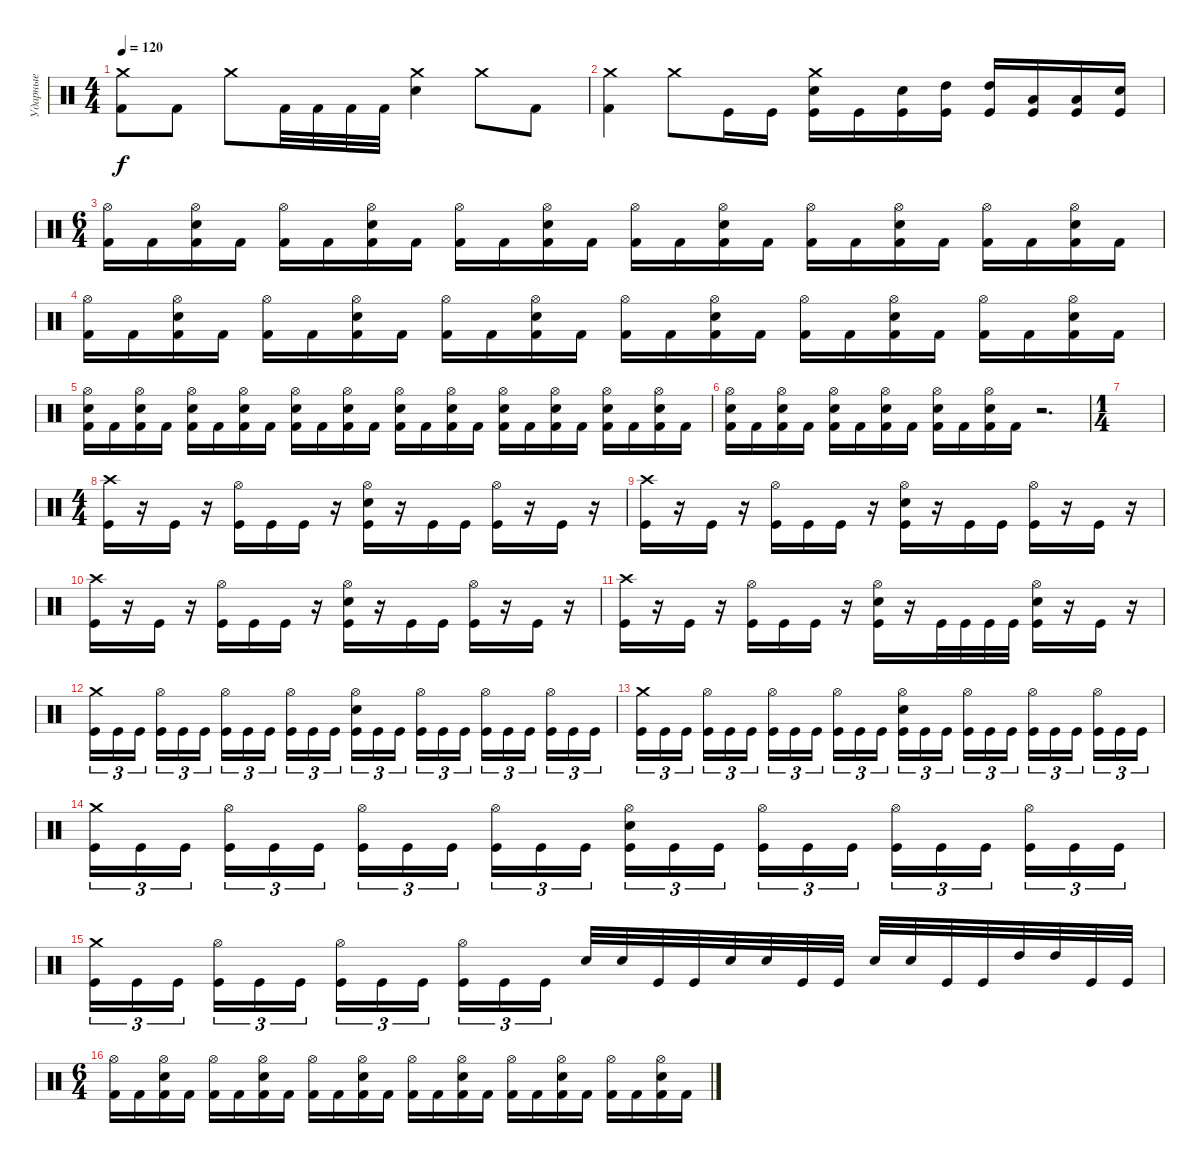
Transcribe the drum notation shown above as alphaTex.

\track ("Ударные" "Ударные") {instrument percussion}
\staff {score}
\articulation defaults
\ts (4 4)
\tempo 120
\clef neutral
\ks c
("Crash medium (hit)" "Kick (hit) 2").8{dy f} "Kick (hit) 2".8 "Crash medium (hit)".8 "Kick (hit) 2".32 "Kick (hit) 2".32 "Kick (hit) 2".32 "Kick (hit) 2".32 ("Crash medium (hit)" "Snare (hit) 2").4 "Crash medium (hit)".8 "Kick (hit) 2".8 |
("Crash medium (hit)" "Kick (hit) 2").4 "Crash medium (hit)".8 "Kick (hit)".16 "Kick (hit)".16 ("Crash medium (hit)" "Snare (hit) 2" "Kick (hit)").16 "Kick (hit)".16 ("Snare (hit) 2" "Kick (hit)").16 ("High Tom (hit)" "Kick (hit)").16 ("High Tom (hit)" "Kick (hit)").16 ("Low Tom (hit)" "Kick (hit)").16 ("Low Tom (hit)" "Kick (hit)").16 ("Snare (hit) 2" "Kick (hit)").16 |
\ts (6 4)
("Hi-Hat (open)" "Kick (hit) 2").16 "Kick (hit) 2".16 ("Hi-Hat (open)" "Snare (hit) 2" "Kick (hit) 2").16 "Kick (hit) 2".16 ("Hi-Hat (open)" "Kick (hit) 2").16 "Kick (hit) 2".16 ("Hi-Hat (open)" "Snare (hit) 2" "Kick (hit) 2").16 "Kick (hit) 2".16 ("Hi-Hat (open)" "Kick (hit) 2").16 "Kick (hit) 2".16 ("Hi-Hat (open)" "Snare (hit) 2" "Kick (hit) 2").16 "Kick (hit) 2".16 ("Hi-Hat (open)" "Kick (hit) 2").16 "Kick (hit) 2".16 ("Hi-Hat (open)" "Snare (hit) 2" "Kick (hit) 2").16 "Kick (hit) 2".16 ("Hi-Hat (open)" "Kick (hit) 2").16 "Kick (hit) 2".16 ("Hi-Hat (open)" "Snare (hit) 2" "Kick (hit) 2").16 "Kick (hit) 2".16 ("Hi-Hat (open)" "Kick (hit) 2").16 "Kick (hit) 2".16 ("Hi-Hat (open)" "Snare (hit) 2" "Kick (hit) 2").16 "Kick (hit) 2".16 |
("Hi-Hat (open)" "Kick (hit) 2").16 "Kick (hit) 2".16 ("Hi-Hat (open)" "Snare (hit) 2" "Kick (hit) 2").16 "Kick (hit) 2".16 ("Hi-Hat (open)" "Kick (hit) 2").16 "Kick (hit) 2".16 ("Hi-Hat (open)" "Snare (hit) 2" "Kick (hit) 2").16 "Kick (hit) 2".16 ("Hi-Hat (open)" "Kick (hit) 2").16 "Kick (hit) 2".16 ("Hi-Hat (open)" "Snare (hit) 2" "Kick (hit) 2").16 "Kick (hit) 2".16 ("Hi-Hat (open)" "Kick (hit) 2").16 "Kick (hit) 2".16 ("Hi-Hat (open)" "Snare (hit) 2" "Kick (hit) 2").16 "Kick (hit) 2".16 ("Hi-Hat (open)" "Kick (hit) 2").16 "Kick (hit) 2".16 ("Hi-Hat (open)" "Snare (hit) 2" "Kick (hit) 2").16 "Kick (hit) 2".16 ("Hi-Hat (open)" "Kick (hit) 2").16 "Kick (hit) 2".16 ("Hi-Hat (open)" "Snare (hit) 2" "Kick (hit) 2").16 "Kick (hit) 2".16 |
("Hi-Hat (open)" "Snare (hit) 2" "Kick (hit) 2").16 "Kick (hit) 2".16 ("Hi-Hat (open)" "Snare (hit) 2" "Kick (hit) 2").16 "Kick (hit) 2".16 ("Hi-Hat (open)" "Snare (hit) 2" "Kick (hit) 2").16 "Kick (hit) 2".16 ("Hi-Hat (open)" "Snare (hit) 2" "Kick (hit) 2").16 "Kick (hit) 2".16 ("Hi-Hat (open)" "Snare (hit) 2" "Kick (hit) 2").16 "Kick (hit) 2".16 ("Hi-Hat (open)" "Snare (hit) 2" "Kick (hit) 2").16 "Kick (hit) 2".16 ("Hi-Hat (open)" "Snare (hit) 2" "Kick (hit) 2").16 "Kick (hit) 2".16 ("Hi-Hat (open)" "Snare (hit) 2" "Kick (hit) 2").16 "Kick (hit) 2".16 ("Hi-Hat (open)" "Snare (hit) 2" "Kick (hit) 2").16 "Kick (hit) 2".16 ("Hi-Hat (open)" "Snare (hit) 2" "Kick (hit) 2").16 "Kick (hit) 2".16 ("Hi-Hat (open)" "Snare (hit) 2" "Kick (hit) 2").16 "Kick (hit) 2".16 ("Hi-Hat (open)" "Snare (hit) 2" "Kick (hit) 2").16 "Kick (hit) 2".16 |
("Hi-Hat (open)" "Snare (hit) 2" "Kick (hit) 2").16 "Kick (hit) 2".16 ("Hi-Hat (open)" "Snare (hit) 2" "Kick (hit) 2").16 "Kick (hit) 2".16 ("Hi-Hat (open)" "Snare (hit) 2" "Kick (hit) 2").16 "Kick (hit) 2".16 ("Hi-Hat (open)" "Snare (hit) 2" "Kick (hit) 2").16 "Kick (hit) 2".16 ("Hi-Hat (open)" "Snare (hit) 2" "Kick (hit) 2").16 "Kick (hit) 2".16 ("Hi-Hat (open)" "Snare (hit) 2" "Kick (hit) 2").16 "Kick (hit) 2".16 r.2{d} |
\ts (1 4)
|
\ts (4 4)
("Crash high (hit)" "Kick (hit)").16 r.16 "Kick (hit)".16 r.16 ("Hi-Hat (open)" "Kick (hit)").16 "Kick (hit)".16 "Kick (hit)".16 r.16 ("Hi-Hat (open)" "Snare (hit) 2" "Kick (hit)").16 r.16 "Kick (hit)".16 "Kick (hit)".16 ("Hi-Hat (open)" "Kick (hit)").16 r.16 "Kick (hit)".16 r.16 |
("Crash high (hit)" "Kick (hit)").16 r.16 "Kick (hit)".16 r.16 ("Hi-Hat (open)" "Kick (hit)").16 "Kick (hit)".16 "Kick (hit)".16 r.16 ("Hi-Hat (open)" "Snare (hit) 2" "Kick (hit)").16 r.16 "Kick (hit)".16 "Kick (hit)".16 ("Hi-Hat (open)" "Kick (hit)").16 r.16 "Kick (hit)".16 r.16 |
("Crash high (hit)" "Kick (hit)").16 r.16 "Kick (hit)".16 r.16 ("Hi-Hat (open)" "Kick (hit)").16 "Kick (hit)".16 "Kick (hit)".16 r.16 ("Hi-Hat (open)" "Snare (hit) 2" "Kick (hit)").16 r.16 "Kick (hit)".16 "Kick (hit)".16 ("Hi-Hat (open)" "Kick (hit)").16 r.16 "Kick (hit)".16 r.16 |
("Crash high (hit)" "Kick (hit)").16 r.16 "Kick (hit)".16 r.16 ("Hi-Hat (open)" "Kick (hit)").16 "Kick (hit)".16 "Kick (hit)".16 r.16 ("Hi-Hat (open)" "Snare (hit) 2" "Kick (hit)").16 r.16 "Kick (hit)".32 "Kick (hit)".32 "Kick (hit)".32 "Kick (hit)".32 ("Hi-Hat (open)" "Snare (hit) 2" "Kick (hit)").16 r.16 "Kick (hit)".16 r.16 |
("Crash medium (hit)" "Kick (hit)").16{tu (3 2)} "Kick (hit)".16{tu (3 2)} "Kick (hit)".16{tu (3 2) beam splitsecondary} ("Hi-Hat (open)" "Kick (hit)").16{tu (3 2)} "Kick (hit)".16{tu (3 2)} "Kick (hit)".16{tu (3 2)} ("Hi-Hat (open)" "Kick (hit)").16{tu (3 2)} "Kick (hit)".16{tu (3 2)} "Kick (hit)".16{tu (3 2) beam splitsecondary} ("Hi-Hat (open)" "Kick (hit)").16{tu (3 2)} "Kick (hit)".16{tu (3 2)} "Kick (hit)".16{tu (3 2)} ("Hi-Hat (open)" "Snare (hit) 2" "Kick (hit)").16{tu (3 2)} "Kick (hit)".16{tu (3 2)} "Kick (hit)".16{tu (3 2) beam splitsecondary} ("Hi-Hat (open)" "Kick (hit)").16{tu (3 2)} "Kick (hit)".16{tu (3 2)} "Kick (hit)".16{tu (3 2)} ("Hi-Hat (open)" "Kick (hit)").16{tu (3 2)} "Kick (hit)".16{tu (3 2)} "Kick (hit)".16{tu (3 2) beam splitsecondary} ("Hi-Hat (open)" "Kick (hit)").16{tu (3 2)} "Kick (hit)".16{tu (3 2)} "Kick (hit)".16{tu (3 2)} |
("Crash medium (hit)" "Kick (hit)").16{tu (3 2)} "Kick (hit)".16{tu (3 2)} "Kick (hit)".16{tu (3 2) beam splitsecondary} ("Hi-Hat (open)" "Kick (hit)").16{tu (3 2)} "Kick (hit)".16{tu (3 2)} "Kick (hit)".16{tu (3 2)} ("Hi-Hat (open)" "Kick (hit)").16{tu (3 2)} "Kick (hit)".16{tu (3 2)} "Kick (hit)".16{tu (3 2) beam splitsecondary} ("Hi-Hat (open)" "Kick (hit)").16{tu (3 2)} "Kick (hit)".16{tu (3 2)} "Kick (hit)".16{tu (3 2)} ("Hi-Hat (open)" "Snare (hit) 2" "Kick (hit)").16{tu (3 2)} "Kick (hit)".16{tu (3 2)} "Kick (hit)".16{tu (3 2) beam splitsecondary} ("Hi-Hat (open)" "Kick (hit)").16{tu (3 2)} "Kick (hit)".16{tu (3 2)} "Kick (hit)".16{tu (3 2)} ("Hi-Hat (open)" "Kick (hit)").16{tu (3 2)} "Kick (hit)".16{tu (3 2)} "Kick (hit)".16{tu (3 2) beam splitsecondary} ("Hi-Hat (open)" "Kick (hit)").16{tu (3 2)} "Kick (hit)".16{tu (3 2)} "Kick (hit)".16{tu (3 2)} |
("Crash medium (hit)" "Kick (hit)").16{tu (3 2)} "Kick (hit)".16{tu (3 2)} "Kick (hit)".16{tu (3 2) beam splitsecondary} ("Hi-Hat (open)" "Kick (hit)").16{tu (3 2)} "Kick (hit)".16{tu (3 2)} "Kick (hit)".16{tu (3 2)} ("Hi-Hat (open)" "Kick (hit)").16{tu (3 2)} "Kick (hit)".16{tu (3 2)} "Kick (hit)".16{tu (3 2) beam splitsecondary} ("Hi-Hat (open)" "Kick (hit)").16{tu (3 2)} "Kick (hit)".16{tu (3 2)} "Kick (hit)".16{tu (3 2)} ("Hi-Hat (open)" "Snare (hit) 2" "Kick (hit)").16{tu (3 2)} "Kick (hit)".16{tu (3 2)} "Kick (hit)".16{tu (3 2) beam splitsecondary} ("Hi-Hat (open)" "Kick (hit)").16{tu (3 2)} "Kick (hit)".16{tu (3 2)} "Kick (hit)".16{tu (3 2)} ("Hi-Hat (open)" "Kick (hit)").16{tu (3 2)} "Kick (hit)".16{tu (3 2)} "Kick (hit)".16{tu (3 2) beam splitsecondary} ("Hi-Hat (open)" "Kick (hit)").16{tu (3 2)} "Kick (hit)".16{tu (3 2)} "Kick (hit)".16{tu (3 2)} |
("Crash medium (hit)" "Kick (hit)").16{tu (3 2)} "Kick (hit)".16{tu (3 2)} "Kick (hit)".16{tu (3 2) beam splitsecondary} ("Hi-Hat (open)" "Kick (hit)").16{tu (3 2)} "Kick (hit)".16{tu (3 2)} "Kick (hit)".16{tu (3 2)} ("Hi-Hat (open)" "Kick (hit)").16{tu (3 2)} "Kick (hit)".16{tu (3 2)} "Kick (hit)".16{tu (3 2) beam splitsecondary} ("Hi-Hat (open)" "Kick (hit)").16{tu (3 2)} "Kick (hit)".16{tu (3 2)} "Kick (hit)".16{tu (3 2)} "Snare (hit) 2".32 "Snare (hit) 2".32 "Kick (hit)".32 "Kick (hit)".32 "Snare (hit) 2".32 "Snare (hit) 2".32 "Kick (hit)".32 "Kick (hit)".32 "Snare (hit) 2".32 "Snare (hit) 2".32 "Kick (hit)".32 "Kick (hit)".32 "High Tom (hit)".32 "High Tom (hit)".32 "Kick (hit)".32 "Kick (hit)".32 |
\ts (6 4)
("Hi-Hat (open)" "Kick (hit) 2").16 "Kick (hit) 2".16 ("Hi-Hat (open)" "Snare (hit) 2" "Kick (hit) 2").16 "Kick (hit) 2".16 ("Hi-Hat (open)" "Kick (hit) 2").16 "Kick (hit) 2".16 ("Hi-Hat (open)" "Snare (hit) 2" "Kick (hit) 2").16 "Kick (hit) 2".16 ("Hi-Hat (open)" "Kick (hit) 2").16 "Kick (hit) 2".16 ("Hi-Hat (open)" "Snare (hit) 2" "Kick (hit) 2").16 "Kick (hit) 2".16 ("Hi-Hat (open)" "Kick (hit) 2").16 "Kick (hit) 2".16 ("Hi-Hat (open)" "Snare (hit) 2" "Kick (hit) 2").16 "Kick (hit) 2".16 ("Hi-Hat (open)" "Kick (hit) 2").16 "Kick (hit) 2".16 ("Hi-Hat (open)" "Snare (hit) 2" "Kick (hit) 2").16 "Kick (hit) 2".16 ("Hi-Hat (open)" "Kick (hit) 2").16 "Kick (hit) 2".16 ("Hi-Hat (open)" "Snare (hit) 2" "Kick (hit) 2").16 "Kick (hit) 2".16
